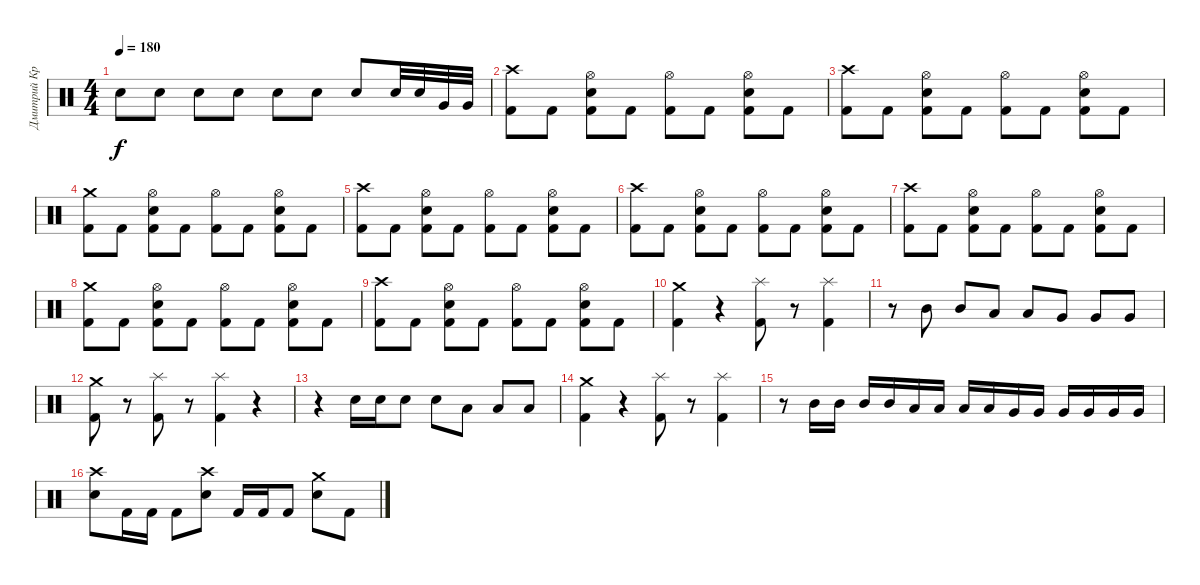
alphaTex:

\track ("Дмитрий Кривенков" "Дмитрий Кр") {instrument percussion}
\staff {score}
\articulation defaults
\ts (4 4)
\tempo 180
\clef neutral
\ks c "Electric Snare (hit)".8{dy f} "Electric Snare (hit)".8 "Electric Snare (hit)".8 "Electric Snare (hit)".8 "Electric Snare (hit)".8 "Electric Snare (hit)".8 "Electric Snare (hit)".8 "Snare (hit) 2".32 "Electric Snare (hit)".32 "Very Low Tom (hit)".32 "Very Low Tom (hit)".32
|
("Crash high (hit)" "Kick (hit) 2").8 "Kick (hit) 2".8 ("Kick (hit) 2" "Electric Snare (hit)" "Hi-Hat (open)").8 "Kick (hit) 2".8 ("Kick (hit) 2" "Hi-Hat (open)").8 "Kick (hit) 2".8 ("Kick (hit) 2" "Electric Snare (hit)" "Hi-Hat (open)").8 "Kick (hit) 2".8 |
("Crash high (hit)" "Kick (hit) 2").8 "Kick (hit) 2".8 ("Kick (hit) 2" "Electric Snare (hit)" "Hi-Hat (open)").8 "Kick (hit) 2".8 ("Kick (hit) 2" "Hi-Hat (open)").8 "Kick (hit) 2".8 ("Kick (hit) 2" "Electric Snare (hit)" "Hi-Hat (open)").8 "Kick (hit) 2".8 |
("Crash medium (hit)" "Kick (hit) 2").8 "Kick (hit) 2".8 ("Kick (hit) 2" "Electric Snare (hit)" "Hi-Hat (open)").8 "Kick (hit) 2".8 ("Kick (hit) 2" "Hi-Hat (open)").8 "Kick (hit) 2".8 ("Kick (hit) 2" "Electric Snare (hit)" "Hi-Hat (open)").8 "Kick (hit) 2".8 |
("Crash high (hit)" "Kick (hit) 2").8 "Kick (hit) 2".8 ("Kick (hit) 2" "Electric Snare (hit)" "Hi-Hat (open)").8 "Kick (hit) 2".8 ("Kick (hit) 2" "Hi-Hat (open)").8 "Kick (hit) 2".8 ("Kick (hit) 2" "Electric Snare (hit)" "Hi-Hat (open)").8 "Kick (hit) 2".8 |
("Crash high (hit)" "Kick (hit) 2").8 "Kick (hit) 2".8 ("Kick (hit) 2" "Electric Snare (hit)" "Hi-Hat (open)").8 "Kick (hit) 2".8 ("Kick (hit) 2" "Hi-Hat (open)").8 "Kick (hit) 2".8 ("Kick (hit) 2" "Electric Snare (hit)" "Hi-Hat (open)").8 "Kick (hit) 2".8 |
("Crash high (hit)" "Kick (hit) 2").8 "Kick (hit) 2".8 ("Kick (hit) 2" "Electric Snare (hit)" "Hi-Hat (open)").8 "Kick (hit) 2".8 ("Kick (hit) 2" "Hi-Hat (open)").8 "Kick (hit) 2".8 ("Kick (hit) 2" "Electric Snare (hit)" "Hi-Hat (open)").8 "Kick (hit) 2".8 |
("Crash medium (hit)" "Kick (hit) 2").8 "Kick (hit) 2".8 ("Kick (hit) 2" "Electric Snare (hit)" "Hi-Hat (open)").8 "Kick (hit) 2".8 ("Kick (hit) 2" "Hi-Hat (open)").8 "Kick (hit) 2".8 ("Kick (hit) 2" "Electric Snare (hit)" "Hi-Hat (open)").8 "Kick (hit) 2".8 |
("Crash high (hit)" "Kick (hit) 2").8 "Kick (hit) 2".8 ("Kick (hit) 2" "Electric Snare (hit)" "Hi-Hat (open)").8 "Kick (hit) 2".8 ("Kick (hit) 2" "Hi-Hat (open)").8 "Kick (hit) 2".8 ("Kick (hit) 2" "Electric Snare (hit)" "Hi-Hat (open)").8 "Kick (hit) 2".8 |
("Kick (hit) 2" "Crash medium (hit)").4 r.4 ("Splash (hit)" "Kick (hit) 2").8 r.8 ("Splash (hit)" "Kick (hit) 2").4 |
r.8 "Mid Tom (hit)".8 "Mid Tom (hit)".8 "Low Tom (hit)".8 "Low Tom (hit)".8 "Very Low Tom (hit)".8 "Very Low Tom (hit)".8 "Very Low Tom (hit)".8 |
("Kick (hit) 2" "Crash medium (hit)").8 r.8 ("Kick (hit) 2" "Splash (hit)").8 r.8 ("Splash (hit)" "Kick (hit) 2").4 r.4 |
r.4 "Snare (hit) 2".16 "Snare (hit) 2".16 "Electric Snare (hit)".8 "Electric Snare (hit)".8 "Low Tom (hit)".8 "Low Floor Tom (hit)".8 "Low Floor Tom (hit)".8 |
("Kick (hit) 2" "Crash medium (hit)").4 r.4 ("Splash (hit)" "Kick (hit) 2").8 r.8 ("Splash (hit)" "Kick (hit) 2").4 |
r.8 "Mid Tom (hit)".16 "Mid Tom (hit)".16 "Mid Tom (hit)".16 "Mid Tom (hit)".16 "Low Tom (hit)".16 "Low Tom (hit)".16 "Low Tom (hit)".16 "Low Tom (hit)".16 "Very Low Tom (hit)".16 "Very Low Tom (hit)".16 "Very Low Tom (hit)".16 "Very Low Tom (hit)".16 "Very Low Tom (hit)".16 "Very Low Tom (hit)".16 |
("Electric Snare (hit)" "Crash high (hit)").8 "Kick (hit) 2".16 "Kick (hit) 2".16 "Kick (hit) 2".8 ("Electric Snare (hit)" "Crash high (hit)").8 "Kick (hit) 2".16 "Kick (hit) 2".16 "Kick (hit) 2".8 ("Electric Snare (hit)" "Crash medium (hit)").8 "Kick (hit) 2".8
